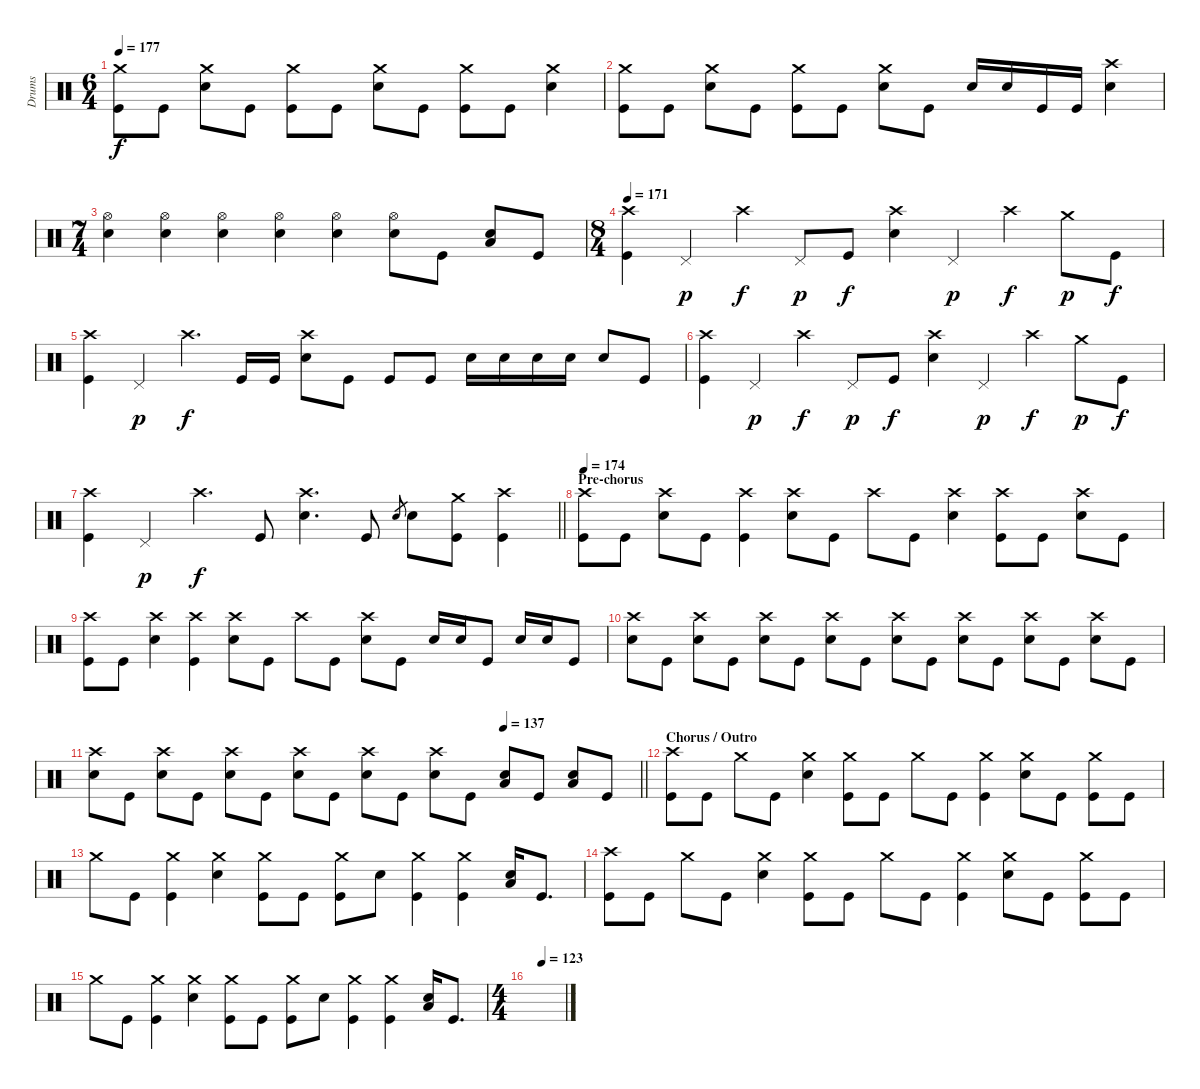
\track ("Drums" "Drums") {instrument percussion}
\staff {score}
\articulation defaults
\ts (6 4)
\tempo 177
\clef neutral
\ks c
("Crash medium (hit)" "Kick (hit)").8{dy f} "Kick (hit)".8 ("Crash medium (hit)" "Electric Snare (hit)").8 "Kick (hit)".8 ("Crash medium (hit)" "Kick (hit)").8 "Kick (hit)".8 ("Crash medium (hit)" "Electric Snare (hit)").8 "Kick (hit)".8 ("Crash medium (hit)" "Kick (hit)").8 "Kick (hit)".8 ("Crash medium (hit)" "Electric Snare (hit)").4 |
("Crash medium (hit)" "Kick (hit)").8 "Kick (hit)".8 ("Crash medium (hit)" "Electric Snare (hit)").8 "Kick (hit)".8 ("Crash medium (hit)" "Kick (hit)").8 "Kick (hit)".8 ("Crash medium (hit)" "Electric Snare (hit)").8 "Kick (hit)".8 "Electric Snare (hit)".16 "Electric Snare (hit)".16 "Kick (hit)".16 "Kick (hit)".16 ("Crash high (hit)" "Electric Snare (hit)").4 |
\ts (7 4)
("Hi-Hat (open)" "Electric Snare (hit)").4 ("Hi-Hat (open)" "Electric Snare (hit)").4 ("Hi-Hat (open)" "Electric Snare (hit)").4 ("Hi-Hat (open)" "Electric Snare (hit)").4 ("Hi-Hat (open)" "Electric Snare (hit)").4 ("Hi-Hat (open)" "Electric Snare (hit)").8 "Kick (hit)".8 ("Electric Snare (hit)" "Low Floor Tom (hit)").8 "Kick (hit)".8 |
\ts (8 4)
\tempo 171
("Crash high (hit)" "Kick (hit)").4 "Pedal Hi-Hat (hit)".4{dy p} "Crash high (hit)".4{dy f} "Pedal Hi-Hat (hit)".8{dy p} "Kick (hit)".8{dy f} ("Crash high (hit)" "Electric Snare (hit)").4 "Pedal Hi-Hat (hit)".4{dy p} "Crash high (hit)".4{dy f} "Crash medium (hit)".8{dy p} "Kick (hit)".8{dy f} |
("Crash high (hit)" "Kick (hit)").4 "Pedal Hi-Hat (hit)".4{dy p} "Crash high (hit)".4{d dy f} "Kick (hit)".16 "Kick (hit)".16 ("Crash high (hit)" "Electric Snare (hit)").8 "Kick (hit)".8 "Kick (hit)".8 "Kick (hit)".8 "Electric Snare (hit)".16 "Electric Snare (hit)".16 "Electric Snare (hit)".16 "Electric Snare (hit)".16 "Electric Snare (hit)".8 "Kick (hit)".8 |
("Crash high (hit)" "Kick (hit)").4 "Pedal Hi-Hat (hit)".4{dy p} "Crash high (hit)".4{dy f} "Pedal Hi-Hat (hit)".8{dy p} "Kick (hit)".8{dy f} ("Crash high (hit)" "Electric Snare (hit)").4 "Pedal Hi-Hat (hit)".4{dy p} "Crash high (hit)".4{dy f} "Crash medium (hit)".8{dy p} "Kick (hit)".8{dy f} |
\barLineRight lightlight
("Crash high (hit)" "Kick (hit)").4 "Pedal Hi-Hat (hit)".4{dy p} "Crash high (hit)".4{d dy f} "Kick (hit)".8 ("Crash high (hit)" "Electric Snare (hit)").4{d} "Kick (hit)".8 "Electric Snare (hit)".8{gr} "Electric Snare (hit)".8 ("Crash medium (hit)" "Kick (hit)").8 ("Crash high (hit)" "Kick (hit)").4 |
\section ("" "Pre-chorus")
\tempo 174
("Crash high (hit)" "Kick (hit)").8 "Kick (hit)".8 ("Crash high (hit)" "Electric Snare (hit)").8 "Kick (hit)".8 ("Crash high (hit)" "Kick (hit)").4 ("Crash high (hit)" "Electric Snare (hit)").8 "Kick (hit)".8 "Crash high (hit)".8 "Kick (hit)".8 ("Crash high (hit)" "Electric Snare (hit)").4 ("Crash high (hit)" "Kick (hit)").8 "Kick (hit)".8 ("Crash high (hit)" "Electric Snare (hit)").8 "Kick (hit)".8 |
("Crash high (hit)" "Kick (hit)").8 "Kick (hit)".8 ("Crash high (hit)" "Electric Snare (hit)").4 ("Crash high (hit)" "Kick (hit)").4 ("Crash high (hit)" "Electric Snare (hit)").8 "Kick (hit)".8 "Crash high (hit)".8 "Kick (hit)".8 ("Crash high (hit)" "Electric Snare (hit)").8 "Kick (hit)".8 "Electric Snare (hit)".16 "Electric Snare (hit)".16 "Kick (hit)".8 "Electric Snare (hit)".16 "Electric Snare (hit)".16 "Kick (hit)".8 |
("Crash high (hit)" "Electric Snare (hit)").8 "Kick (hit)".8 ("Crash high (hit)" "Electric Snare (hit)").8 "Kick (hit)".8 ("Crash high (hit)" "Electric Snare (hit)").8 "Kick (hit)".8 ("Crash high (hit)" "Electric Snare (hit)").8 "Kick (hit)".8 ("Crash high (hit)" "Electric Snare (hit)").8 "Kick (hit)".8 ("Crash high (hit)" "Electric Snare (hit)").8 "Kick (hit)".8 ("Crash high (hit)" "Electric Snare (hit)").8 "Kick (hit)".8 ("Crash high (hit)" "Electric Snare (hit)").8 "Kick (hit)".8 |
\tempo (137 0.75)
\barLineRight lightlight
("Crash high (hit)" "Electric Snare (hit)").8 "Kick (hit)".8 ("Crash high (hit)" "Electric Snare (hit)").8 "Kick (hit)".8 ("Crash high (hit)" "Electric Snare (hit)").8 "Kick (hit)".8 ("Crash high (hit)" "Electric Snare (hit)").8 "Kick (hit)".8 ("Crash high (hit)" "Electric Snare (hit)").8 "Kick (hit)".8 ("Crash high (hit)" "Electric Snare (hit)").8 "Kick (hit)".8 ("Electric Snare (hit)" "Low Floor Tom (hit)").8 "Kick (hit)".8 ("Electric Snare (hit)" "Low Floor Tom (hit)").8 "Kick (hit)".8 |
\section ("" "Chorus / Outro")
("Crash high (hit)" "Kick (hit)").8 "Kick (hit)".8 "Crash medium (hit)".8 "Kick (hit)".8 ("Crash medium (hit)" "Electric Snare (hit)").4 ("Crash medium (hit)" "Kick (hit)").8 "Kick (hit)".8 "Crash medium (hit)".8 "Kick (hit)".8 ("Crash medium (hit)" "Kick (hit)").4 ("Crash medium (hit)" "Electric Snare (hit)").8 "Kick (hit)".8 ("Crash medium (hit)" "Kick (hit)").8 "Kick (hit)".8 |
"Crash medium (hit)".8 "Kick (hit)".8 ("Crash medium (hit)" "Kick (hit)").4 ("Crash medium (hit)" "Electric Snare (hit)").4 ("Crash medium (hit)" "Kick (hit)").8 "Kick (hit)".8 ("Crash medium (hit)" "Kick (hit)").8 "Electric Snare (hit)".8 ("Crash medium (hit)" "Kick (hit)").4 ("Crash medium (hit)" "Kick (hit)").4 ("Electric Snare (hit)" "Low Floor Tom (hit)").16 "Kick (hit)".8{d} |
("Crash high (hit)" "Kick (hit)").8 "Kick (hit)".8 "Crash medium (hit)".8 "Kick (hit)".8 ("Crash medium (hit)" "Electric Snare (hit)").4 ("Crash medium (hit)" "Kick (hit)").8 "Kick (hit)".8 "Crash medium (hit)".8 "Kick (hit)".8 ("Crash medium (hit)" "Kick (hit)").4 ("Crash medium (hit)" "Electric Snare (hit)").8 "Kick (hit)".8 ("Crash medium (hit)" "Kick (hit)").8 "Kick (hit)".8 |
"Crash medium (hit)".8 "Kick (hit)".8 ("Crash medium (hit)" "Kick (hit)").4 ("Crash medium (hit)" "Electric Snare (hit)").4 ("Crash medium (hit)" "Kick (hit)").8 "Kick (hit)".8 ("Crash medium (hit)" "Kick (hit)").8 "Electric Snare (hit)".8 ("Crash medium (hit)" "Kick (hit)").4 ("Crash medium (hit)" "Kick (hit)").4 ("Electric Snare (hit)" "Low Floor Tom (hit)").16 "Kick (hit)".8{d} |
\ts (4 4)
\tempo (123 0.375)
